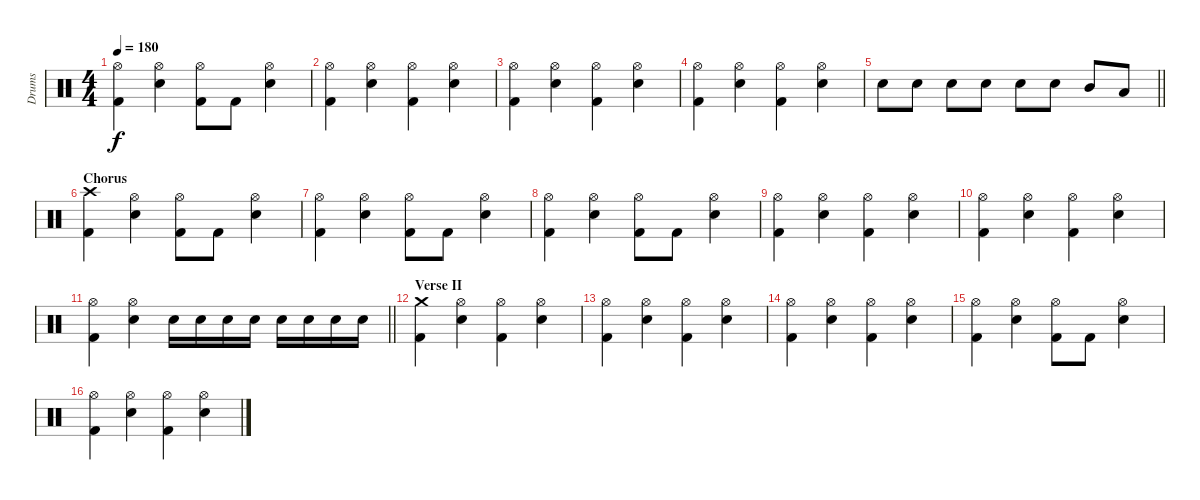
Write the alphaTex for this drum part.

\track ("Drums" "Drums") {instrument percussion}
\staff {score}
\articulation defaults
\ts (4 4)
\tempo 180
\clef neutral
\ks c
("Hi-Hat (open)" "Kick (hit) 2").4{dy f} ("Hi-Hat (open)" "Electric Snare (hit)").4 ("Hi-Hat (open)" "Kick (hit) 2").8 "Kick (hit) 2".8 ("Hi-Hat (open)" "Electric Snare (hit)").4 |
("Hi-Hat (open)" "Kick (hit) 2").4 ("Hi-Hat (open)" "Electric Snare (hit)").4 ("Hi-Hat (open)" "Kick (hit) 2").4 ("Hi-Hat (open)" "Electric Snare (hit)").4 |
("Hi-Hat (open)" "Kick (hit) 2").4 ("Hi-Hat (open)" "Electric Snare (hit)").4 ("Hi-Hat (open)" "Kick (hit) 2").4 ("Hi-Hat (open)" "Electric Snare (hit)").4 |
("Hi-Hat (open)" "Kick (hit) 2").4 ("Hi-Hat (open)" "Electric Snare (hit)").4 ("Hi-Hat (open)" "Kick (hit) 2").4 ("Hi-Hat (open)" "Electric Snare (hit)").4 |
\barLineRight lightlight "Electric Snare (hit)".8 "Electric Snare (hit)".8 "Electric Snare (hit)".8 "Electric Snare (hit)".8 "Electric Snare (hit)".8 "Electric Snare (hit)".8 "Mid Tom (hit)".8 "Low Tom (hit)".8
|
\section ("" "Chorus")
("Crash high (hit)" "Kick (hit) 2").4 ("Hi-Hat (open)" "Electric Snare (hit)").4 ("Hi-Hat (open)" "Kick (hit) 2").8 "Kick (hit) 2".8 ("Hi-Hat (open)" "Electric Snare (hit)").4 |
("Hi-Hat (open)" "Kick (hit) 2").4 ("Hi-Hat (open)" "Electric Snare (hit)").4 ("Hi-Hat (open)" "Kick (hit) 2").8 "Kick (hit) 2".8 ("Hi-Hat (open)" "Electric Snare (hit)").4 |
("Hi-Hat (open)" "Kick (hit) 2").4 ("Hi-Hat (open)" "Electric Snare (hit)").4 ("Hi-Hat (open)" "Kick (hit) 2").8 "Kick (hit) 2".8 ("Hi-Hat (open)" "Electric Snare (hit)").4 |
("Hi-Hat (open)" "Kick (hit) 2").4 ("Hi-Hat (open)" "Electric Snare (hit)").4 ("Hi-Hat (open)" "Kick (hit) 2").4 ("Hi-Hat (open)" "Electric Snare (hit)").4 |
("Hi-Hat (open)" "Kick (hit) 2").4 ("Hi-Hat (open)" "Electric Snare (hit)").4 ("Hi-Hat (open)" "Kick (hit) 2").4 ("Hi-Hat (open)" "Electric Snare (hit)").4 |
\barLineRight lightlight
("Hi-Hat (open)" "Kick (hit) 2").4 ("Hi-Hat (open)" "Electric Snare (hit)").4 "Electric Snare (hit)".16 "Electric Snare (hit)".16 "Electric Snare (hit)".16 "Electric Snare (hit)".16 "Electric Snare (hit)".16 "Electric Snare (hit)".16 "Electric Snare (hit)".16 "Electric Snare (hit)".16 |
\section ("" "Verse II")
("Crash medium (hit)" "Kick (hit) 2").4 ("Hi-Hat (open)" "Electric Snare (hit)").4 ("Hi-Hat (open)" "Kick (hit) 2").4 ("Hi-Hat (open)" "Electric Snare (hit)").4 |
("Hi-Hat (open)" "Kick (hit) 2").4 ("Hi-Hat (open)" "Electric Snare (hit)").4 ("Hi-Hat (open)" "Kick (hit) 2").4 ("Hi-Hat (open)" "Electric Snare (hit)").4 |
("Hi-Hat (open)" "Kick (hit) 2").4 ("Hi-Hat (open)" "Electric Snare (hit)").4 ("Hi-Hat (open)" "Kick (hit) 2").4 ("Hi-Hat (open)" "Electric Snare (hit)").4 |
("Hi-Hat (open)" "Kick (hit) 2").4 ("Hi-Hat (open)" "Electric Snare (hit)").4 ("Hi-Hat (open)" "Kick (hit) 2").8 "Kick (hit) 2".8 ("Hi-Hat (open)" "Electric Snare (hit)").4 |
("Hi-Hat (open)" "Kick (hit) 2").4 ("Hi-Hat (open)" "Electric Snare (hit)").4 ("Hi-Hat (open)" "Kick (hit) 2").4 ("Hi-Hat (open)" "Electric Snare (hit)").4
